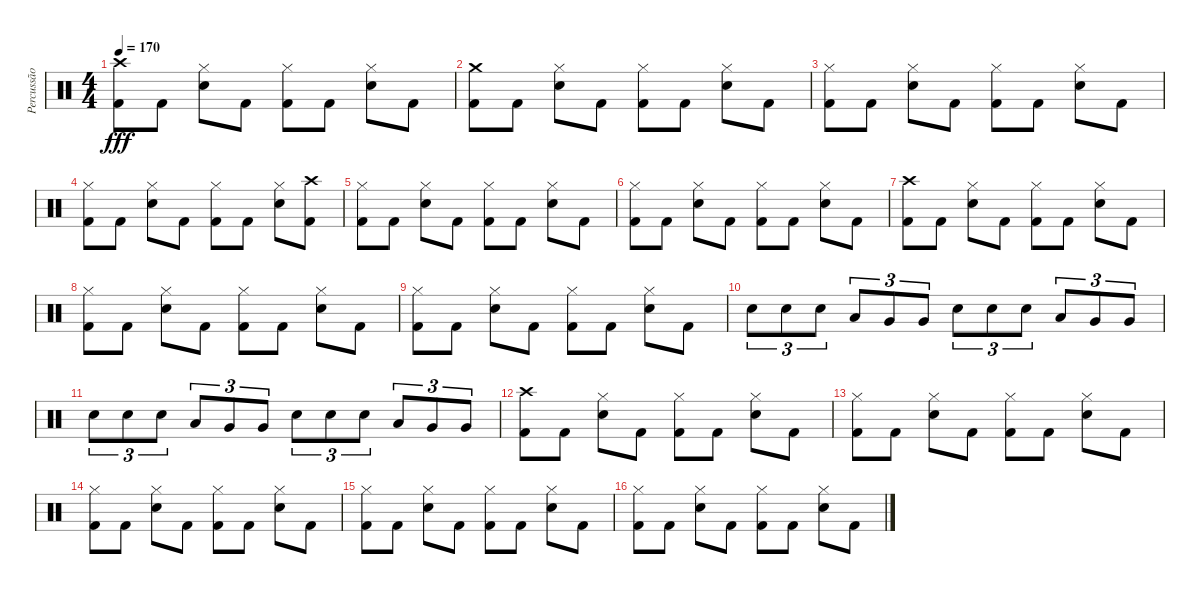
\track ("Percussão" "Percussão") {instrument percussion}
\staff {score}
\articulation defaults
\ts (4 4)
\tempo 170
\clef neutral
\ks c
("Kick (hit) 2" "Crash high (hit)").8{dy fff} "Kick (hit) 2".8 ("Snare (hit) 2" "Hi-Hat (closed)").8 "Kick (hit) 2".8 ("Kick (hit) 2" "Hi-Hat (closed)").8 "Kick (hit) 2".8 ("Snare (hit) 2" "Hi-Hat (closed)").8 "Kick (hit) 2".8 |
("Kick (hit) 2" "Crash medium (hit)").8 "Kick (hit) 2".8 ("Snare (hit) 2" "Hi-Hat (closed)").8 "Kick (hit) 2".8 ("Kick (hit) 2" "Hi-Hat (closed)").8 "Kick (hit) 2".8 ("Snare (hit) 2" "Hi-Hat (closed)").8 "Kick (hit) 2".8 |
("Kick (hit) 2" "Hi-Hat (closed)").8 "Kick (hit) 2".8 ("Snare (hit) 2" "Hi-Hat (closed)").8 "Kick (hit) 2".8 ("Kick (hit) 2" "Hi-Hat (closed)").8 "Kick (hit) 2".8 ("Snare (hit) 2" "Hi-Hat (closed)").8 "Kick (hit) 2".8 |
("Kick (hit) 2" "Hi-Hat (closed)").8 "Kick (hit) 2".8 ("Snare (hit) 2" "Hi-Hat (closed)").8 "Kick (hit) 2".8 ("Kick (hit) 2" "Hi-Hat (closed)").8 "Kick (hit) 2".8 ("Snare (hit) 2" "Hi-Hat (closed)").8 ("Kick (hit) 2" "Crash high (hit)").8 |
("Kick (hit) 2" "Hi-Hat (closed)").8 "Kick (hit) 2".8 ("Snare (hit) 2" "Hi-Hat (closed)").8 "Kick (hit) 2".8 ("Kick (hit) 2" "Hi-Hat (closed)").8 "Kick (hit) 2".8 ("Snare (hit) 2" "Hi-Hat (closed)").8 "Kick (hit) 2".8 |
("Kick (hit) 2" "Hi-Hat (closed)").8 "Kick (hit) 2".8 ("Snare (hit) 2" "Hi-Hat (closed)").8 "Kick (hit) 2".8 ("Kick (hit) 2" "Hi-Hat (closed)").8 "Kick (hit) 2".8 ("Snare (hit) 2" "Hi-Hat (closed)").8 "Kick (hit) 2".8 |
("Kick (hit) 2" "Crash high (hit)").8 "Kick (hit) 2".8 ("Snare (hit) 2" "Hi-Hat (closed)").8 "Kick (hit) 2".8 ("Kick (hit) 2" "Hi-Hat (closed)").8 "Kick (hit) 2".8 ("Snare (hit) 2" "Hi-Hat (closed)").8 "Kick (hit) 2".8 |
("Kick (hit) 2" "Hi-Hat (closed)").8 "Kick (hit) 2".8 ("Snare (hit) 2" "Hi-Hat (closed)").8 "Kick (hit) 2".8 ("Kick (hit) 2" "Hi-Hat (closed)").8 "Kick (hit) 2".8 ("Snare (hit) 2" "Hi-Hat (closed)").8 "Kick (hit) 2".8 |
("Kick (hit) 2" "Hi-Hat (closed)").8 "Kick (hit) 2".8 ("Snare (hit) 2" "Hi-Hat (closed)").8 "Kick (hit) 2".8 ("Kick (hit) 2" "Hi-Hat (closed)").8 "Kick (hit) 2".8 ("Snare (hit) 2" "Hi-Hat (closed)").8 "Kick (hit) 2".8 |
"Snare (hit) 2".8{tu (3 2)} "Snare (hit) 2".8{tu (3 2)} "Snare (hit) 2".8{tu (3 2)} "Low Tom (hit)".8{tu (3 2)} "Very Low Tom (hit)".8{tu (3 2)} "Very Low Tom (hit)".8{tu (3 2)} "Snare (hit) 2".8{tu (3 2)} "Snare (hit) 2".8{tu (3 2)} "Snare (hit) 2".8{tu (3 2)} "Low Tom (hit)".8{tu (3 2)} "Very Low Tom (hit)".8{tu (3 2)} "Very Low Tom (hit)".8{tu (3 2)} |
"Snare (hit) 2".8{tu (3 2)} "Snare (hit) 2".8{tu (3 2)} "Snare (hit) 2".8{tu (3 2)} "Low Tom (hit)".8{tu (3 2)} "Very Low Tom (hit)".8{tu (3 2)} "Very Low Tom (hit)".8{tu (3 2)} "Snare (hit) 2".8{tu (3 2)} "Snare (hit) 2".8{tu (3 2)} "Snare (hit) 2".8{tu (3 2)} "Low Tom (hit)".8{tu (3 2)} "Very Low Tom (hit)".8{tu (3 2)} "Very Low Tom (hit)".8{tu (3 2)} |
("Kick (hit) 2" "Crash high (hit)").8 "Kick (hit) 2".8 ("Snare (hit) 2" "Hi-Hat (closed)").8 "Kick (hit) 2".8 ("Kick (hit) 2" "Hi-Hat (closed)").8 "Kick (hit) 2".8 ("Snare (hit) 2" "Hi-Hat (closed)").8 "Kick (hit) 2".8 |
("Kick (hit) 2" "Hi-Hat (closed)").8 "Kick (hit) 2".8 ("Snare (hit) 2" "Hi-Hat (closed)").8 "Kick (hit) 2".8 ("Kick (hit) 2" "Hi-Hat (closed)").8 "Kick (hit) 2".8 ("Snare (hit) 2" "Hi-Hat (closed)").8 "Kick (hit) 2".8 |
("Kick (hit) 2" "Hi-Hat (closed)").8 "Kick (hit) 2".8 ("Snare (hit) 2" "Hi-Hat (closed)").8 "Kick (hit) 2".8 ("Kick (hit) 2" "Hi-Hat (closed)").8 "Kick (hit) 2".8 ("Snare (hit) 2" "Hi-Hat (closed)").8 "Kick (hit) 2".8 |
("Kick (hit) 2" "Hi-Hat (closed)").8 "Kick (hit) 2".8 ("Snare (hit) 2" "Hi-Hat (closed)").8 "Kick (hit) 2".8 ("Kick (hit) 2" "Hi-Hat (closed)").8 "Kick (hit) 2".8 ("Snare (hit) 2" "Hi-Hat (closed)").8 "Kick (hit) 2".8 |
("Kick (hit) 2" "Hi-Hat (closed)").8 "Kick (hit) 2".8 ("Snare (hit) 2" "Hi-Hat (closed)").8 "Kick (hit) 2".8 ("Kick (hit) 2" "Hi-Hat (closed)").8 "Kick (hit) 2".8 ("Snare (hit) 2" "Hi-Hat (closed)").8 "Kick (hit) 2".8
